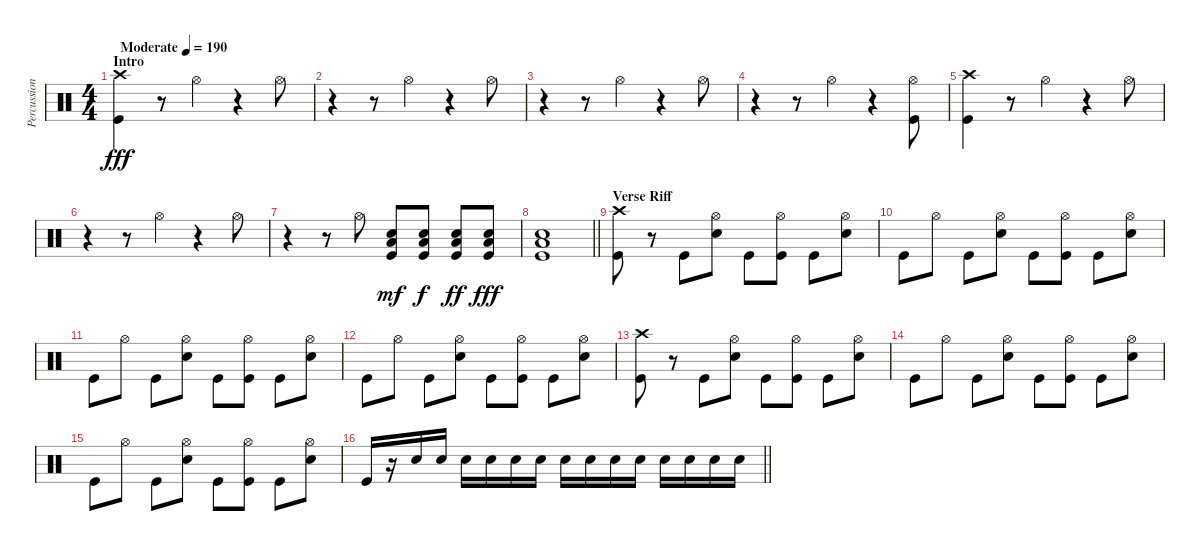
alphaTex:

\track ("Percussioni" "Percussion") {instrument percussion}
\staff {score}
\articulation defaults
\ts (4 4)
\section ("" "Intro")
\tempo (190 "Moderate")
\clef neutral
\ks c
("Crash high (hit)" "Kick (hit)").4{dy fff} r.8 "Hi-Hat (open)".4 r.4 "Hi-Hat (open)".8 |
r.4 r.8 "Hi-Hat (open)".4 r.4 "Hi-Hat (open)".8 |
r.4 r.8 "Hi-Hat (open)".4 r.4 "Hi-Hat (open)".8 |
r.4 r.8 "Hi-Hat (open)".4 r.4 ("Hi-Hat (open)" "Kick (hit)").8 |
("Crash high (hit)" "Kick (hit)").4 r.8 "Hi-Hat (open)".4 r.4 "Hi-Hat (open)".8 |
r.4 r.8 "Hi-Hat (open)".4 r.4 "Hi-Hat (open)".8 |
r.4 r.8 "Hi-Hat (open)".8 ("Low Floor Tom (hit)" "Snare (hit) 2" "Kick (hit)").8{dy mf} ("Low Floor Tom (hit)" "Snare (hit) 2" "Kick (hit)").8{dy f} ("Low Floor Tom (hit)" "Snare (hit) 2" "Kick (hit)").8{dy ff} ("Low Floor Tom (hit)" "Snare (hit) 2" "Kick (hit)").8{dy fff} |
\barLineRight lightlight
("Low Floor Tom (hit)" "Snare (hit) 2" "Kick (hit)").1 |
\section ("" "Verse Riff")
("Crash high (hit)" "Kick (hit)").8 r.8 "Kick (hit)".8 ("Hi-Hat (open)" "Snare (hit) 2").8 "Kick (hit)".8 ("Hi-Hat (open)" "Kick (hit)").8 "Kick (hit)".8 ("Hi-Hat (open)" "Snare (hit) 2").8 |
"Kick (hit)".8 "Hi-Hat (open)".8 "Kick (hit)".8 ("Hi-Hat (open)" "Snare (hit) 2").8 "Kick (hit)".8 ("Hi-Hat (open)" "Kick (hit)").8 "Kick (hit)".8 ("Hi-Hat (open)" "Snare (hit) 2").8 |
"Kick (hit)".8 "Hi-Hat (open)".8 "Kick (hit)".8 ("Hi-Hat (open)" "Snare (hit) 2").8 "Kick (hit)".8 ("Hi-Hat (open)" "Kick (hit)").8 "Kick (hit)".8 ("Hi-Hat (open)" "Snare (hit) 2").8 |
"Kick (hit)".8 "Hi-Hat (open)".8 "Kick (hit)".8 ("Hi-Hat (open)" "Snare (hit) 2").8 "Kick (hit)".8 ("Hi-Hat (open)" "Kick (hit)").8 "Kick (hit)".8 ("Hi-Hat (open)" "Snare (hit) 2").8 |
("Crash high (hit)" "Kick (hit)").8 r.8 "Kick (hit)".8 ("Hi-Hat (open)" "Snare (hit) 2").8 "Kick (hit)".8 ("Hi-Hat (open)" "Kick (hit)").8 "Kick (hit)".8 ("Hi-Hat (open)" "Snare (hit) 2").8 |
"Kick (hit)".8 "Hi-Hat (open)".8 "Kick (hit)".8 ("Hi-Hat (open)" "Snare (hit) 2").8 "Kick (hit)".8 ("Hi-Hat (open)" "Kick (hit)").8 "Kick (hit)".8 ("Hi-Hat (open)" "Snare (hit) 2").8 |
"Kick (hit)".8 "Hi-Hat (open)".8 "Kick (hit)".8 ("Hi-Hat (open)" "Snare (hit) 2").8 "Kick (hit)".8 ("Hi-Hat (open)" "Kick (hit)").8 "Kick (hit)".8 ("Hi-Hat (open)" "Snare (hit) 2").8 |
\barLineRight lightlight "Kick (hit)".16
r.16 "Snare (hit) 2".16 "Snare (hit) 2".16 "Snare (hit) 2".16 "Snare (hit) 2".16 "Snare (hit) 2".16 "Snare (hit) 2".16 "Snare (hit) 2".16 "Snare (hit) 2".16 "Snare (hit) 2".16 "Snare (hit) 2".16 "Snare (hit) 2".16 "Snare (hit) 2".16 "Snare (hit) 2".16 "Snare (hit) 2".16
